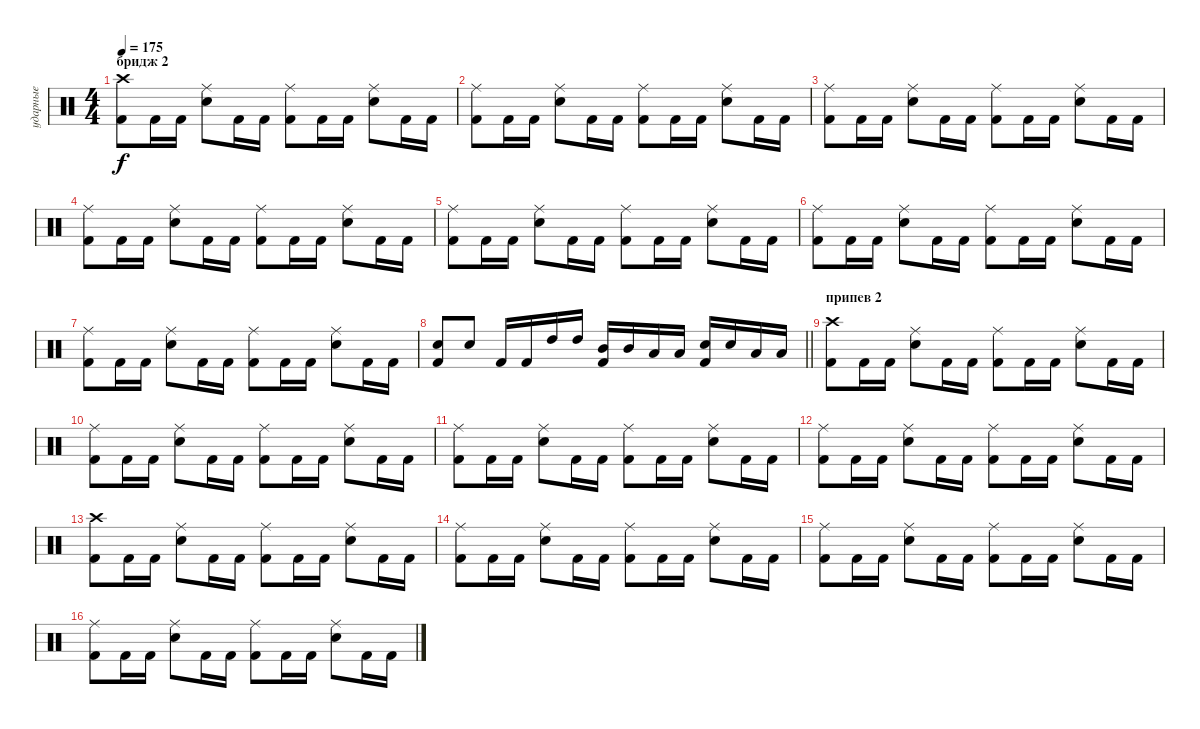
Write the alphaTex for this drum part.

\track ("ударные" "ударные") {instrument percussion}
\staff {score}
\articulation defaults
\ts (4 4)
\section ("" "бридж 2")
\tempo 175
\clef neutral
\ks c
("Kick (hit) 2"{t} "Crash high (hit)"{t}).8{dy f} "Kick (hit) 2".16 "Kick (hit) 2".16 ("Snare (hit) 2" "Ride (middle)").8 "Kick (hit) 2".16 "Kick (hit) 2".16 ("Kick (hit) 2" "Ride (middle)").8 "Kick (hit) 2".16 "Kick (hit) 2".16 ("Snare (hit) 2" "Ride (middle)").8 "Kick (hit) 2".16 "Kick (hit) 2".16 |
("Kick (hit) 2" "Ride (middle)").8 "Kick (hit) 2".16 "Kick (hit) 2".16 ("Snare (hit) 2" "Ride (middle)").8 "Kick (hit) 2".16 "Kick (hit) 2".16 ("Kick (hit) 2" "Ride (middle)").8 "Kick (hit) 2".16 "Kick (hit) 2".16 ("Snare (hit) 2" "Ride (middle)").8 "Kick (hit) 2".16 "Kick (hit) 2".16 |
("Kick (hit) 2" "Ride (middle)").8 "Kick (hit) 2".16 "Kick (hit) 2".16 ("Snare (hit) 2" "Ride (middle)").8 "Kick (hit) 2".16 "Kick (hit) 2".16 ("Kick (hit) 2" "Ride (middle)").8 "Kick (hit) 2".16 "Kick (hit) 2".16 ("Snare (hit) 2" "Ride (middle)").8 "Kick (hit) 2".16 "Kick (hit) 2".16 |
("Kick (hit) 2" "Ride (middle)").8 "Kick (hit) 2".16 "Kick (hit) 2".16 ("Snare (hit) 2" "Ride (middle)").8 "Kick (hit) 2".16 "Kick (hit) 2".16 ("Kick (hit) 2" "Ride (middle)").8 "Kick (hit) 2".16 "Kick (hit) 2".16 ("Snare (hit) 2" "Ride (middle)").8 "Kick (hit) 2".16 "Kick (hit) 2".16 |
("Kick (hit) 2" "Ride (middle)").8 "Kick (hit) 2".16 "Kick (hit) 2".16 ("Snare (hit) 2" "Ride (middle)").8 "Kick (hit) 2".16 "Kick (hit) 2".16 ("Kick (hit) 2" "Ride (middle)").8 "Kick (hit) 2".16 "Kick (hit) 2".16 ("Snare (hit) 2" "Ride (middle)").8 "Kick (hit) 2".16 "Kick (hit) 2".16 |
("Kick (hit) 2" "Ride (middle)").8 "Kick (hit) 2".16 "Kick (hit) 2".16 ("Snare (hit) 2" "Ride (middle)").8 "Kick (hit) 2".16 "Kick (hit) 2".16 ("Kick (hit) 2" "Ride (middle)").8 "Kick (hit) 2".16 "Kick (hit) 2".16 ("Snare (hit) 2" "Ride (middle)").8 "Kick (hit) 2".16 "Kick (hit) 2".16 |
("Kick (hit) 2" "Ride (middle)").8 "Kick (hit) 2".16 "Kick (hit) 2".16 ("Snare (hit) 2" "Ride (middle)").8 "Kick (hit) 2".16 "Kick (hit) 2".16 ("Kick (hit) 2" "Ride (middle)").8 "Kick (hit) 2".16 "Kick (hit) 2".16 ("Snare (hit) 2" "Ride (middle)").8 "Kick (hit) 2".16 "Kick (hit) 2".16 |
\barLineRight lightlight
("Kick (hit) 2" "Snare (hit) 2").8 "Snare (hit) 2".8 "Kick (hit) 2".16 "Kick (hit) 2".16 "High Tom (hit)".16 "High Tom (hit)".16 ("Kick (hit) 2" "Mid Tom (hit)").16 "Mid Tom (hit)".16 "Low Tom (hit)".16 "Low Tom (hit)".16 ("Kick (hit) 2" "Snare (hit) 2").16 "Snare (hit) 2".16 "Low Tom (hit)".16 "Low Tom (hit)".16 |
\section ("" "припев 2")
("Kick (hit) 2" "Crash high (hit)").8 "Kick (hit) 2".16 "Kick (hit) 2".16 ("Snare (hit) 2" "Ride (middle)").8 "Kick (hit) 2".16 "Kick (hit) 2".16 ("Kick (hit) 2" "Ride (middle)").8 "Kick (hit) 2".16 "Kick (hit) 2".16 ("Snare (hit) 2" "Ride (middle)").8 "Kick (hit) 2".16 "Kick (hit) 2".16 |
("Kick (hit) 2" "Ride (middle)").8 "Kick (hit) 2".16 "Kick (hit) 2".16 ("Snare (hit) 2" "Ride (middle)").8 "Kick (hit) 2".16 "Kick (hit) 2".16 ("Kick (hit) 2" "Ride (middle)").8 "Kick (hit) 2".16 "Kick (hit) 2".16 ("Snare (hit) 2" "Ride (middle)").8 "Kick (hit) 2".16 "Kick (hit) 2".16 |
("Kick (hit) 2" "Ride (middle)").8 "Kick (hit) 2".16 "Kick (hit) 2".16 ("Snare (hit) 2" "Ride (middle)").8 "Kick (hit) 2".16 "Kick (hit) 2".16 ("Kick (hit) 2" "Ride (middle)").8 "Kick (hit) 2".16 "Kick (hit) 2".16 ("Snare (hit) 2" "Ride (middle)").8 "Kick (hit) 2".16 "Kick (hit) 2".16 |
("Kick (hit) 2" "Ride (middle)").8 "Kick (hit) 2".16 "Kick (hit) 2".16 ("Snare (hit) 2" "Ride (middle)").8 "Kick (hit) 2".16 "Kick (hit) 2".16 ("Kick (hit) 2" "Ride (middle)").8 "Kick (hit) 2".16 "Kick (hit) 2".16 ("Snare (hit) 2" "Ride (middle)").8 "Kick (hit) 2".16 "Kick (hit) 2".16 |
("Kick (hit) 2" "Crash high (hit)").8 "Kick (hit) 2".16 "Kick (hit) 2".16 ("Snare (hit) 2" "Ride (middle)").8 "Kick (hit) 2".16 "Kick (hit) 2".16 ("Kick (hit) 2" "Ride (middle)").8 "Kick (hit) 2".16 "Kick (hit) 2".16 ("Snare (hit) 2" "Ride (middle)").8 "Kick (hit) 2".16 "Kick (hit) 2".16 |
("Kick (hit) 2" "Ride (middle)").8 "Kick (hit) 2".16 "Kick (hit) 2".16 ("Snare (hit) 2" "Ride (middle)").8 "Kick (hit) 2".16 "Kick (hit) 2".16 ("Kick (hit) 2" "Ride (middle)").8 "Kick (hit) 2".16 "Kick (hit) 2".16 ("Snare (hit) 2" "Ride (middle)").8 "Kick (hit) 2".16 "Kick (hit) 2".16 |
("Kick (hit) 2" "Ride (middle)").8 "Kick (hit) 2".16 "Kick (hit) 2".16 ("Snare (hit) 2" "Ride (middle)").8 "Kick (hit) 2".16 "Kick (hit) 2".16 ("Kick (hit) 2" "Ride (middle)").8 "Kick (hit) 2".16 "Kick (hit) 2".16 ("Snare (hit) 2" "Ride (middle)").8 "Kick (hit) 2".16 "Kick (hit) 2".16 |
("Kick (hit) 2" "Ride (middle)").8 "Kick (hit) 2".16 "Kick (hit) 2".16 ("Snare (hit) 2" "Ride (middle)").8 "Kick (hit) 2".16 "Kick (hit) 2".16 ("Kick (hit) 2" "Ride (middle)").8 "Kick (hit) 2".16 "Kick (hit) 2".16 ("Snare (hit) 2" "Ride (middle)").8 "Kick (hit) 2".16 "Kick (hit) 2".16
